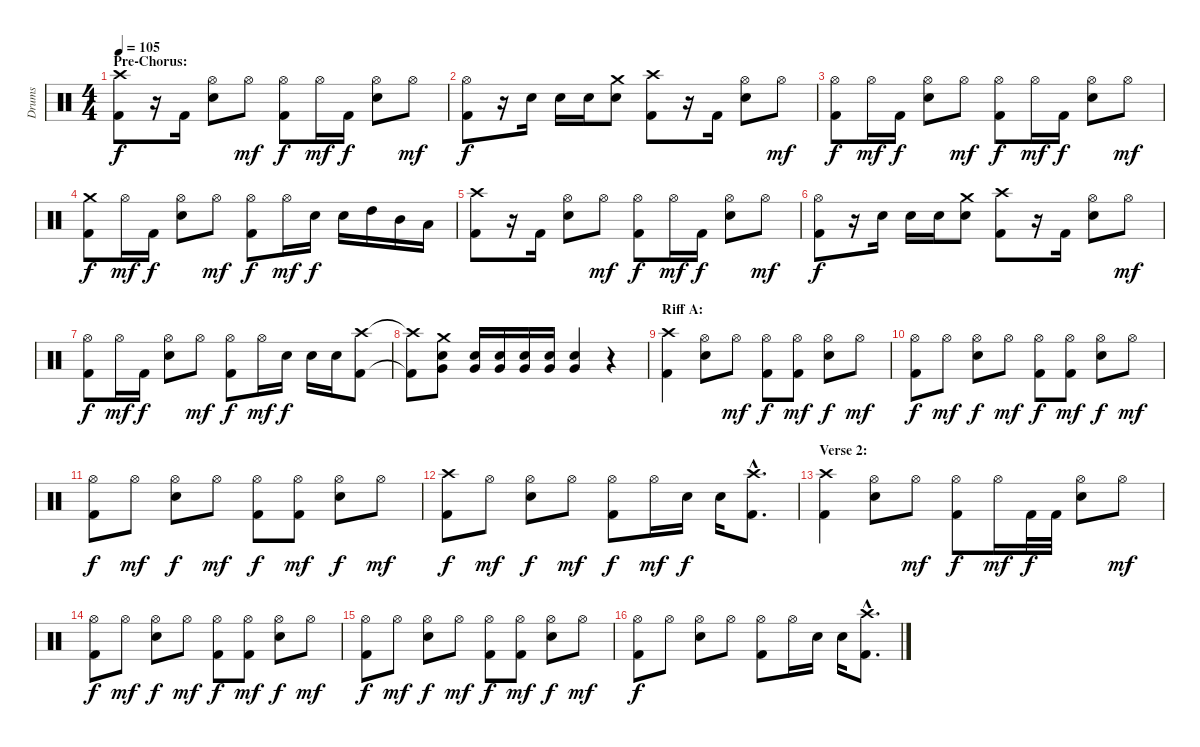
\track ("Drums" "Drums") {instrument percussion}
\staff {score}
\articulation defaults
\ts (4 4)
\section ("" "Pre-Chorus:")
\tempo 105
\clef neutral
\ks c
("Crash high (hit)" "Kick (hit) 2").8{dy f} r.16 "Kick (hit) 2".16 ("Hi-Hat (open)" "Electric Snare (hit)").8 "Hi-Hat (open)".8{dy mf} ("Hi-Hat (open)" "Kick (hit) 2").8{dy f} "Hi-Hat (open)".16{dy mf} "Kick (hit) 2".16{dy f} ("Hi-Hat (open)" "Electric Snare (hit)").8 "Hi-Hat (open)".8{dy mf} |
("Hi-Hat (open)" "Kick (hit) 2").8{dy f} r.16 "Electric Snare (hit)".16 "Electric Snare (hit)".16 "Electric Snare (hit)".16 ("Crash medium (hit)" "Electric Snare (hit)").8 ("Crash high (hit)" "Kick (hit) 2").8 r.16 "Kick (hit) 2".16 ("Hi-Hat (open)" "Electric Snare (hit)").8 "Hi-Hat (open)".8{dy mf} |
("Hi-Hat (open)" "Kick (hit) 2").8{dy f} "Hi-Hat (open)".16{dy mf} "Kick (hit) 2".16{dy f} ("Hi-Hat (open)" "Electric Snare (hit)").8 "Hi-Hat (open)".8{dy mf} ("Hi-Hat (open)" "Kick (hit) 2").8{dy f} "Hi-Hat (open)".16{dy mf} "Kick (hit) 2".16{dy f} ("Hi-Hat (open)" "Electric Snare (hit)").8 "Hi-Hat (open)".8{dy mf} |
("Crash medium (hit)" "Kick (hit) 2").8{dy f} "Hi-Hat (open)".16{dy mf} "Kick (hit) 2".16{dy f} ("Hi-Hat (open)" "Electric Snare (hit)").8 "Hi-Hat (open)".8{dy mf} ("Hi-Hat (open)" "Kick (hit) 2").8{dy f} "Hi-Hat (open)".16{dy mf} "Electric Snare (hit)".16{dy f} "Electric Snare (hit)".16 "High Tom (hit)".16 "Mid Tom (hit)".16 "Low Tom (hit)".16 |
("Crash high (hit)" "Kick (hit) 2").8 r.16 "Kick (hit) 2".16 ("Hi-Hat (open)" "Electric Snare (hit)").8 "Hi-Hat (open)".8{dy mf} ("Hi-Hat (open)" "Kick (hit) 2").8{dy f} "Hi-Hat (open)".16{dy mf} "Kick (hit) 2".16{dy f} ("Hi-Hat (open)" "Electric Snare (hit)").8 "Hi-Hat (open)".8{dy mf} |
("Hi-Hat (open)" "Kick (hit) 2").8{dy f} r.16 "Electric Snare (hit)".16 "Electric Snare (hit)".16 "Electric Snare (hit)".16 ("Crash medium (hit)" "Electric Snare (hit)").8 ("Crash high (hit)" "Kick (hit) 2").8 r.16 "Kick (hit) 2".16 ("Hi-Hat (open)" "Electric Snare (hit)").8 "Hi-Hat (open)".8{dy mf} |
("Hi-Hat (open)" "Kick (hit) 2").8{dy f} "Hi-Hat (open)".16{dy mf} "Kick (hit) 2".16{dy f} ("Hi-Hat (open)" "Electric Snare (hit)").8 "Hi-Hat (open)".8{dy mf} ("Hi-Hat (open)" "Kick (hit) 2").8{dy f} "Hi-Hat (open)".16{dy mf} "Electric Snare (hit)".16{dy f} "Electric Snare (hit)".16 "Electric Snare (hit)".16 ("Crash high (hit)" "Kick (hit) 2").8 |
("Crash high (hit)"{t} "Kick (hit) 2"{t}).8 ("Crash medium (hit)" "Electric Snare (hit)" "Very Low Tom (hit)").8 ("Electric Snare (hit)" "Very Low Tom (hit)").16 ("Electric Snare (hit)" "Very Low Tom (hit)").16 ("Electric Snare (hit)" "Very Low Tom (hit)").16 ("Electric Snare (hit)" "Very Low Tom (hit)").16 ("Electric Snare (hit)" "Very Low Tom (hit)").4 r.4 |
\section ("" "Riff A:")
("Crash high (hit)" "Kick (hit) 2").4 ("Hi-Hat (open)" "Electric Snare (hit)").8 "Hi-Hat (open)".8{dy mf} ("Hi-Hat (open)" "Kick (hit) 2").8{dy f} ("Hi-Hat (open)" "Kick (hit) 2").8{dy mf} ("Hi-Hat (open)" "Electric Snare (hit)").8{dy f} "Hi-Hat (open)".8{dy mf} |
("Hi-Hat (open)" "Kick (hit) 2").8{dy f} "Hi-Hat (open)".8{dy mf} ("Hi-Hat (open)" "Electric Snare (hit)").8{dy f} "Hi-Hat (open)".8{dy mf} ("Hi-Hat (open)" "Kick (hit) 2").8{dy f} ("Hi-Hat (open)" "Kick (hit) 2").8{dy mf} ("Hi-Hat (open)" "Electric Snare (hit)").8{dy f} "Hi-Hat (open)".8{dy mf} |
("Hi-Hat (open)" "Kick (hit) 2").8{dy f} "Hi-Hat (open)".8{dy mf} ("Hi-Hat (open)" "Electric Snare (hit)").8{dy f} "Hi-Hat (open)".8{dy mf} ("Hi-Hat (open)" "Kick (hit) 2").8{dy f} ("Hi-Hat (open)" "Kick (hit) 2").8{dy mf} ("Hi-Hat (open)" "Electric Snare (hit)").8{dy f} "Hi-Hat (open)".8{dy mf} |
("Crash high (hit)" "Kick (hit) 2").8{dy f} "Hi-Hat (open)".8{dy mf} ("Hi-Hat (open)" "Electric Snare (hit)").8{dy f} "Hi-Hat (open)".8{dy mf} ("Hi-Hat (open)" "Kick (hit) 2").8{dy f} "Hi-Hat (open)".16{dy mf} "Electric Snare (hit)".16{dy f} "Electric Snare (hit)".16 ("Crash high (hit)"{hac} "Kick (hit) 2"{hac}).8{d} |
\section ("" "Verse 2:")
("Crash high (hit)" "Kick (hit) 2").4 ("Hi-Hat (open)" "Electric Snare (hit)").8 "Hi-Hat (open)".8{dy mf} ("Hi-Hat (open)" "Kick (hit) 2").8{dy f} "Hi-Hat (open)".16{dy mf} "Kick (hit) 2".32{dy f} "Kick (hit) 2".32 ("Hi-Hat (open)" "Electric Snare (hit)").8 "Hi-Hat (open)".8{dy mf} |
("Hi-Hat (open)" "Kick (hit) 2").8{dy f} "Hi-Hat (open)".8{dy mf} ("Hi-Hat (open)" "Electric Snare (hit)").8{dy f} "Hi-Hat (open)".8{dy mf} ("Hi-Hat (open)" "Kick (hit) 2").8{dy f} ("Hi-Hat (open)" "Kick (hit) 2").8{dy mf} ("Hi-Hat (open)" "Electric Snare (hit)").8{dy f} "Hi-Hat (open)".8{dy mf} |
("Hi-Hat (open)" "Kick (hit) 2").8{dy f} "Hi-Hat (open)".8{dy mf} ("Hi-Hat (open)" "Electric Snare (hit)").8{dy f} "Hi-Hat (open)".8{dy mf} ("Hi-Hat (open)" "Kick (hit) 2").8{dy f} ("Hi-Hat (open)" "Kick (hit) 2").8{dy mf} ("Hi-Hat (open)" "Electric Snare (hit)").8{dy f} "Hi-Hat (open)".8{dy mf} |
("Hi-Hat (open)" "Kick (hit) 2").8{dy f} "Hi-Hat (open)".8 ("Hi-Hat (open)" "Electric Snare (hit)").8 "Hi-Hat (open)".8 ("Hi-Hat (open)" "Kick (hit) 2").8 "Hi-Hat (open)".16 "Electric Snare (hit)".16 "Electric Snare (hit)".16 ("Crash high (hit)"{hac} "Kick (hit) 2"{hac}).8{d}
